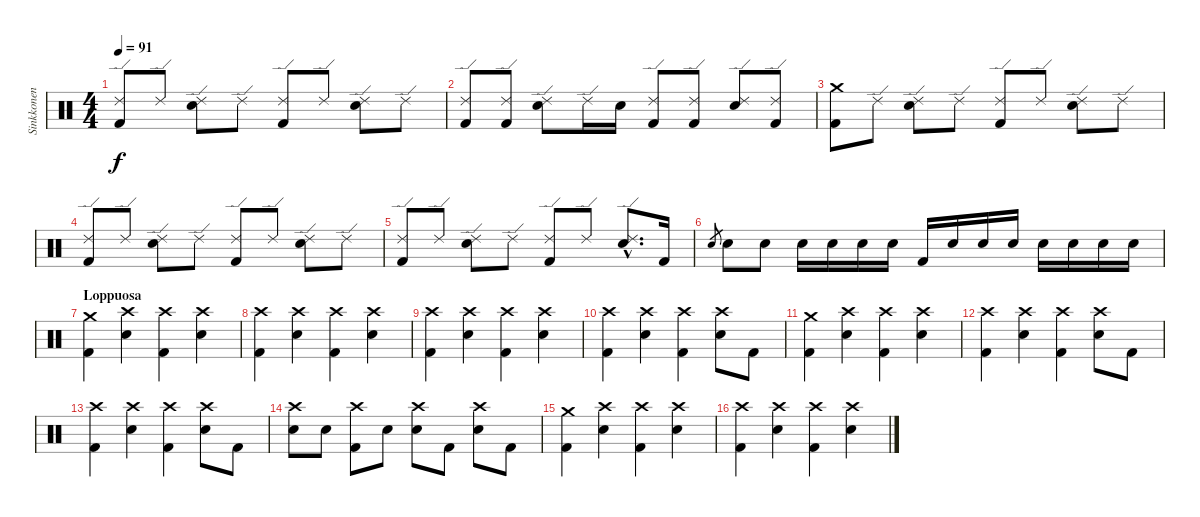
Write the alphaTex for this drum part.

\track ("Sinkkonen" "Sinkkonen") {instrument percussion}
\staff {score}
\articulation defaults
\ts (4 4)
\tempo 91
\clef neutral
\ks c
("Kick (hit) 2" "Ride (edge) 2").8{dy f} "Ride (edge) 2".8 ("Ride (edge) 2" "Snare (hit) 2").8 "Ride (edge) 2".8 ("Kick (hit) 2" "Ride (edge) 2").8 "Ride (edge) 2".8 ("Ride (edge) 2" "Snare (hit) 2").8 "Ride (edge) 2".8 |
("Kick (hit) 2" "Ride (edge) 2").8 ("Kick (hit) 2" "Ride (edge) 2").8 ("Ride (edge) 2" "Snare (hit) 2").8 "Ride (edge) 2".16 "Snare (hit) 2".16 ("Kick (hit) 2" "Ride (edge) 2").8 ("Kick (hit) 2" "Ride (edge) 2").8 ("Ride (edge) 2" "Snare (hit) 2").8 ("Kick (hit) 2" "Ride (edge) 2").8 |
("Kick (hit) 2" "Crash medium (hit)").8 "Ride (edge) 2".8 ("Ride (edge) 2" "Snare (hit) 2").8 "Ride (edge) 2".8 ("Kick (hit) 2" "Ride (edge) 2").8 "Ride (edge) 2".8 ("Ride (edge) 2" "Snare (hit) 2").8 "Ride (edge) 2".8 |
("Kick (hit) 2" "Ride (edge) 2").8 "Ride (edge) 2".8 ("Ride (edge) 2" "Snare (hit) 2").8 "Ride (edge) 2".8 ("Kick (hit) 2" "Ride (edge) 2").8 "Ride (edge) 2".8 ("Ride (edge) 2" "Snare (hit) 2").8 "Ride (edge) 2".8 |
("Kick (hit) 2" "Ride (edge) 2").8 "Ride (edge) 2".8 ("Ride (edge) 2" "Snare (hit) 2").8 "Ride (edge) 2".8 ("Kick (hit) 2" "Ride (edge) 2").8 "Ride (edge) 2".8 ("Ride (edge) 2"{hac} "Snare (hit) 2"{hac}).8{d} "Kick (hit) 2".16 |
"Snare (hit) 2".8{gr} "Snare (hit) 2".8 "Snare (hit) 2".8 "Snare (hit) 2".16 "Snare (hit) 2".16 "Snare (hit) 2".16 "Snare (hit) 2".16 "Kick (hit) 2".16 "Snare (hit) 2".16 "Snare (hit) 2".16 "Snare (hit) 2".16 "Snare (hit) 2".16 "Snare (hit) 2".16 "Snare (hit) 2".16 "Snare (hit) 2".16 |
\section ("" "Loppuosa")
("Kick (hit) 2" "Crash medium (hit)").4 ("Crash high (hit)" "Snare (hit) 2").4 ("Kick (hit) 2" "Crash high (hit)").4 ("Crash high (hit)" "Snare (hit) 2").4 |
("Kick (hit) 2" "Crash high (hit)").4 ("Crash high (hit)" "Snare (hit) 2").4 ("Kick (hit) 2" "Crash high (hit)").4 ("Crash high (hit)" "Snare (hit) 2").4 |
("Kick (hit) 2" "Crash high (hit)").4 ("Crash high (hit)" "Snare (hit) 2").4 ("Kick (hit) 2" "Crash high (hit)").4 ("Crash high (hit)" "Snare (hit) 2").4 |
("Kick (hit) 2" "Crash high (hit)").4 ("Crash high (hit)" "Snare (hit) 2").4 ("Kick (hit) 2" "Crash high (hit)").4 ("Crash high (hit)" "Snare (hit) 2").8 "Kick (hit) 2".8 |
("Kick (hit) 2" "Crash medium (hit)").4 ("Crash high (hit)" "Snare (hit) 2").4 ("Kick (hit) 2" "Crash high (hit)").4 ("Crash high (hit)" "Snare (hit) 2").4 |
("Kick (hit) 2" "Crash high (hit)").4 ("Crash high (hit)" "Snare (hit) 2").4 ("Kick (hit) 2" "Crash high (hit)").4 ("Crash high (hit)" "Snare (hit) 2").8 "Kick (hit) 2".8 |
("Kick (hit) 2" "Crash high (hit)").4 ("Crash high (hit)" "Snare (hit) 2").4 ("Kick (hit) 2" "Crash high (hit)").4 ("Crash high (hit)" "Snare (hit) 2").8 "Kick (hit) 2".8 |
("Crash high (hit)" "Snare (hit) 2").8 "Snare (hit) 2".8 ("Kick (hit) 2" "Crash high (hit)").8 "Snare (hit) 2".8 ("Crash high (hit)" "Snare (hit) 2").8 "Kick (hit) 2".8 ("Crash high (hit)" "Snare (hit) 2").8 "Kick (hit) 2".8 |
("Kick (hit) 2" "Crash medium (hit)").4 ("Crash high (hit)" "Snare (hit) 2").4 ("Kick (hit) 2" "Crash high (hit)").4 ("Crash high (hit)" "Snare (hit) 2").4 |
("Kick (hit) 2" "Crash high (hit)").4 ("Crash high (hit)" "Snare (hit) 2").4 ("Kick (hit) 2" "Crash high (hit)").4 ("Crash high (hit)" "Snare (hit) 2").4
